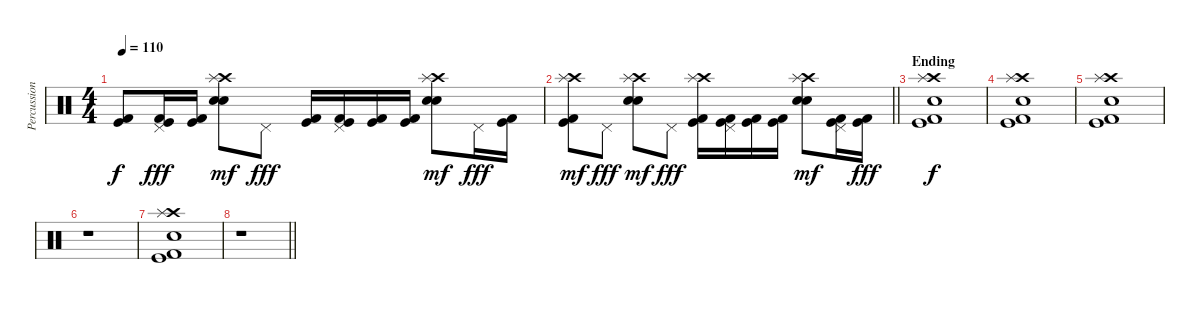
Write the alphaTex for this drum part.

\track ("Percussion" "Percussion") {instrument percussion}
\staff {score}
\articulation defaults
\ts (4 4)
\tempo 110
\clef neutral
\ks c
("Kick (hit)" "Kick (hit) 2").8{dy f} ("Pedal Hi-Hat (hit)" "Kick (hit)" "Kick (hit) 2").16{dy fff} ("Kick (hit)" "Kick (hit) 2").16 ("Crash high (hit)" "Electric Snare (hit)" "Snare (hit) 2" "Splash (hit)").8{dy mf} "Pedal Hi-Hat (hit)".8{dy fff} ("Kick (hit)" "Kick (hit) 2").16 ("Pedal Hi-Hat (hit)" "Kick (hit)" "Kick (hit) 2").16 ("Kick (hit)" "Kick (hit) 2").16 ("Kick (hit)" "Kick (hit) 2").16 ("Crash high (hit)" "Electric Snare (hit)" "Snare (hit) 2" "Splash (hit)").8{dy mf} "Pedal Hi-Hat (hit)".16{dy fff} ("Kick (hit)" "Kick (hit) 2").16 |
\barLineRight lightlight
("Crash high (hit)" "Splash (hit)" "Kick (hit)" "Kick (hit) 2").8{dy mf} "Pedal Hi-Hat (hit)".8{dy fff} ("Crash high (hit)" "Electric Snare (hit)" "Snare (hit) 2" "Splash (hit)").8{dy mf} "Pedal Hi-Hat (hit)".8{dy fff} ("Crash high (hit)" "Splash (hit)" "Kick (hit)" "Kick (hit) 2").16 ("Pedal Hi-Hat (hit)" "Kick (hit)" "Kick (hit) 2").16 ("Kick (hit)" "Kick (hit) 2").16 ("Kick (hit)" "Kick (hit) 2").16 ("Crash high (hit)" "Electric Snare (hit)" "Snare (hit) 2" "Splash (hit)").8{dy mf} ("Pedal Hi-Hat (hit)" "Kick (hit)" "Kick (hit) 2").16 ("Kick (hit)" "Kick (hit) 2").16{dy fff} |
\section ("" "Ending")
("Crash high (hit)" "Splash (hit)" "Snare (hit) 2" "Kick (hit)" "Kick (hit) 2").1{dy f} |
("Crash high (hit)" "Splash (hit)" "Snare (hit) 2" "Kick (hit)" "Kick (hit) 2").1 |
("Crash high (hit)" "Splash (hit)" "Snare (hit) 2" "Kick (hit)" "Kick (hit) 2").1 |
r.1 |
("Crash high (hit)" "Splash (hit)" "Snare (hit) 2" "Kick (hit)" "Kick (hit) 2").1 |
\barLineRight lightlight
r.1
